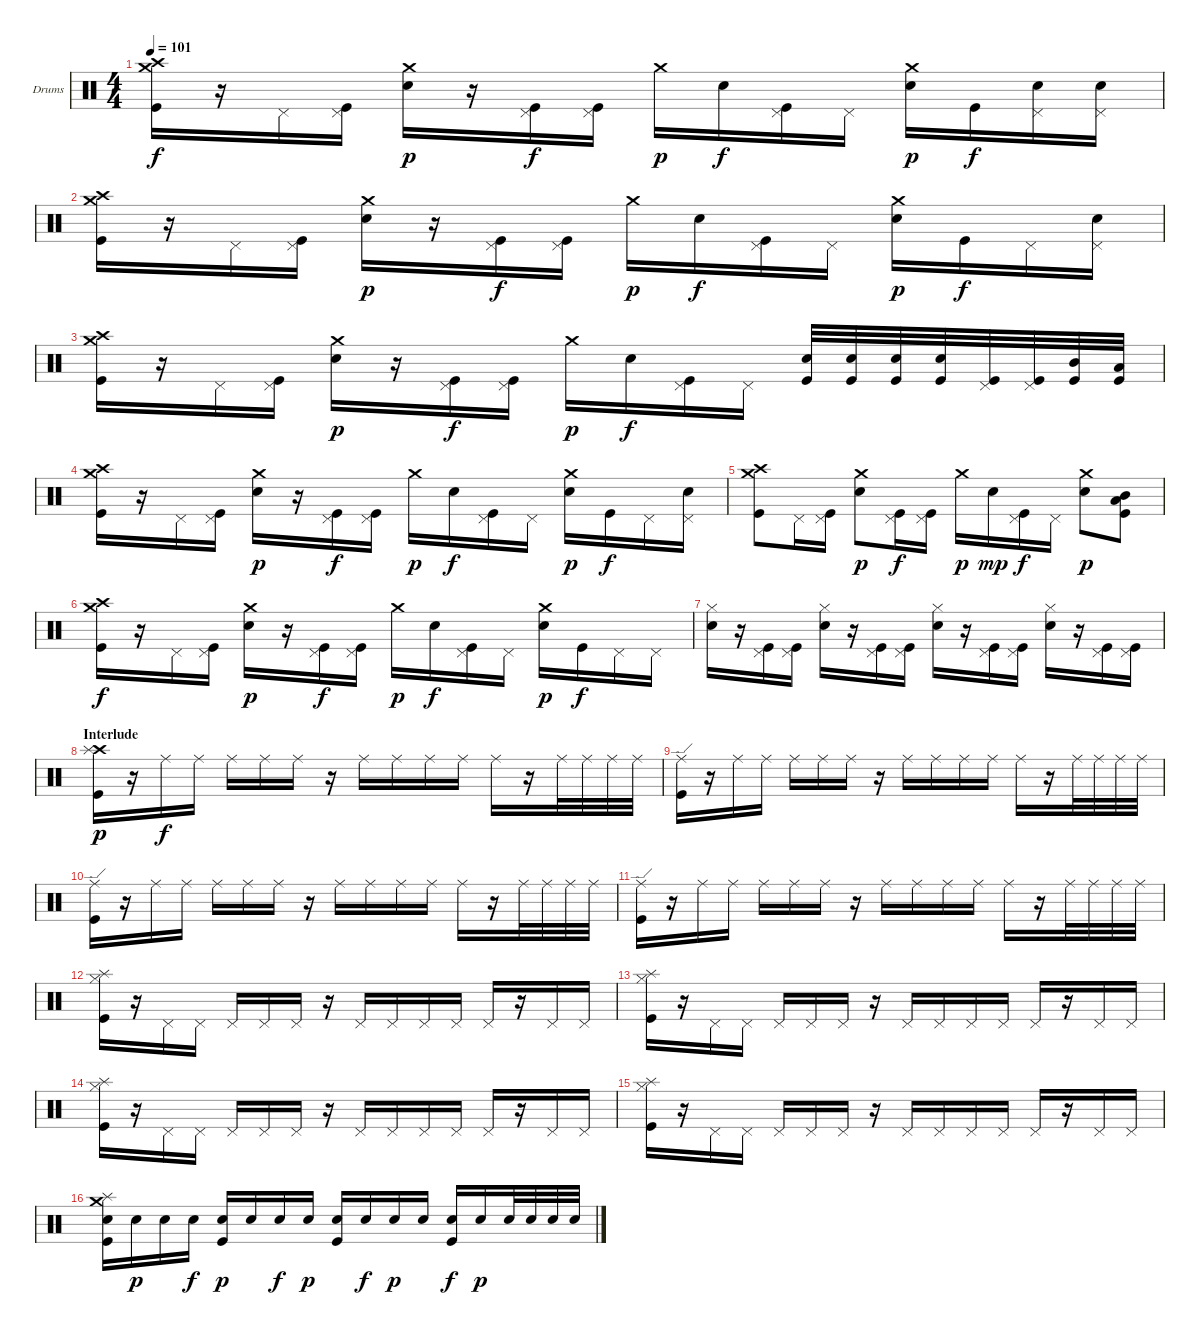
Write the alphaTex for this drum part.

\bracketExtendMode groupsimilarinstruments
\firstSystemTrackNameOrientation horizontal
\otherSystemsTrackNameOrientation horizontal
\track ("Drumkit" "Drums") {instrument percussion}
\staff {score}
\articulation defaults
\ts (4 4)
\tempo 101
\clef neutral
\ks c
("Crash high (hit)" "Crash medium (hit)" "Kick (hit)").16{dy f} r.16 "Pedal Hi-Hat (hit)".16 ("Pedal Hi-Hat (hit)" "Kick (hit)").16 ("Crash medium (hit)" "Snare (hit) 2").16{dy p} r.16 ("Pedal Hi-Hat (hit)" "Kick (hit)").16{dy f} ("Pedal Hi-Hat (hit)" "Kick (hit)").16 "Crash medium (hit)".16{dy p} "Snare (hit) 2".16{dy f} ("Pedal Hi-Hat (hit)" "Kick (hit)").16 "Pedal Hi-Hat (hit)".16 ("Crash medium (hit)" "Snare (hit) 2").16{dy p} "Kick (hit)".16{dy f} ("Pedal Hi-Hat (hit)" "Snare (hit) 2").16 ("Pedal Hi-Hat (hit)" "Snare (hit) 2").16 |
("Crash high (hit)" "Crash medium (hit)" "Kick (hit)").16 r.16 "Pedal Hi-Hat (hit)".16 ("Pedal Hi-Hat (hit)" "Kick (hit)").16 ("Crash medium (hit)" "Snare (hit) 2").16{dy p} r.16 ("Pedal Hi-Hat (hit)" "Kick (hit)").16{dy f} ("Pedal Hi-Hat (hit)" "Kick (hit)").16 "Crash medium (hit)".16{dy p} "Snare (hit) 2".16{dy f} ("Pedal Hi-Hat (hit)" "Kick (hit)").16 "Pedal Hi-Hat (hit)".16 ("Crash medium (hit)" "Snare (hit) 2").16{dy p} "Kick (hit)".16{dy f} "Pedal Hi-Hat (hit)".16 ("Pedal Hi-Hat (hit)" "Snare (hit) 2").16 |
("Crash high (hit)" "Crash medium (hit)" "Kick (hit)").16 r.16 "Pedal Hi-Hat (hit)".16 ("Pedal Hi-Hat (hit)" "Kick (hit)").16 ("Crash medium (hit)" "Snare (hit) 2").16{dy p} r.16 ("Pedal Hi-Hat (hit)" "Kick (hit)").16{dy f} ("Pedal Hi-Hat (hit)" "Kick (hit)").16 "Crash medium (hit)".16{dy p} "Snare (hit) 2".16{dy f} ("Pedal Hi-Hat (hit)" "Kick (hit)").16 "Pedal Hi-Hat (hit)".16 ("Snare (hit) 2" "Kick (hit)").32 ("Snare (hit) 2" "Kick (hit)").32 ("Snare (hit) 2" "Kick (hit)").32 ("Snare (hit) 2" "Kick (hit)").32 ("Pedal Hi-Hat (hit)" "Kick (hit)").32 ("Pedal Hi-Hat (hit)" "Kick (hit)").32 ("Mid Tom (hit)" "Kick (hit)").32 ("Low Tom (hit)" "Kick (hit)").32 |
("Crash high (hit)" "Crash medium (hit)" "Kick (hit)").16 r.16 "Pedal Hi-Hat (hit)".16 ("Pedal Hi-Hat (hit)" "Kick (hit)").16 ("Crash medium (hit)" "Snare (hit) 2").16{dy p} r.16 ("Pedal Hi-Hat (hit)" "Kick (hit)").16{dy f} ("Pedal Hi-Hat (hit)" "Kick (hit)").16 "Crash medium (hit)".16{dy p} "Snare (hit) 2".16{dy f} ("Pedal Hi-Hat (hit)" "Kick (hit)").16 "Pedal Hi-Hat (hit)".16 ("Crash medium (hit)" "Snare (hit) 2").16{dy p} "Kick (hit)".16{dy f} "Pedal Hi-Hat (hit)".16 ("Pedal Hi-Hat (hit)" "Snare (hit) 2").16 |
("Crash high (hit)" "Crash medium (hit)" "Kick (hit)").8 "Pedal Hi-Hat (hit)".16 ("Pedal Hi-Hat (hit)" "Kick (hit)").16 ("Crash medium (hit)" "Snare (hit) 2").8{dy p} ("Pedal Hi-Hat (hit)" "Kick (hit)").16{dy f} ("Pedal Hi-Hat (hit)" "Kick (hit)").16 "Crash medium (hit)".16{dy p} "Snare (hit) 2".16{dy mp} ("Pedal Hi-Hat (hit)" "Kick (hit)").16{dy f} "Pedal Hi-Hat (hit)".16 ("Crash medium (hit)" "Snare (hit) 2").8{dy p} ("Low Tom (hit)" "Mid Tom (hit)" "Kick (hit)").8 |
("Crash high (hit)" "Crash medium (hit)" "Kick (hit)").16{dy f} r.16 "Pedal Hi-Hat (hit)".16 ("Pedal Hi-Hat (hit)" "Kick (hit)").16 ("Crash medium (hit)" "Snare (hit) 2").16{dy p} r.16 ("Pedal Hi-Hat (hit)" "Kick (hit)").16{dy f} ("Pedal Hi-Hat (hit)" "Kick (hit)").16 "Crash medium (hit)".16{dy p} "Snare (hit) 2".16{dy f} ("Pedal Hi-Hat (hit)" "Kick (hit)").16 "Pedal Hi-Hat (hit)".16 ("Crash medium (hit)" "Snare (hit) 2").16{dy p} "Kick (hit)".16{dy f} "Pedal Hi-Hat (hit)".16 "Pedal Hi-Hat (hit)".16 |
("Hi-Hat (closed)" "Snare (hit) 2").16 r.16 ("Pedal Hi-Hat (hit)" "Kick (hit)").16 ("Pedal Hi-Hat (hit)" "Kick (hit)").16 ("Hi-Hat (closed)" "Snare (hit) 2").16 r.16 ("Pedal Hi-Hat (hit)" "Kick (hit)").16 ("Pedal Hi-Hat (hit)" "Kick (hit)").16 ("Hi-Hat (closed)" "Snare (hit) 2").16 r.16 ("Pedal Hi-Hat (hit)" "Kick (hit)").16 ("Pedal Hi-Hat (hit)" "Kick (hit)").16 ("Hi-Hat (closed)" "Snare (hit) 2").16 r.16 ("Pedal Hi-Hat (hit)" "Kick (hit)").16 ("Pedal Hi-Hat (hit)" "Kick (hit)").16 |
\section ("" "Interlude")
("Crash high (hit)" "Splash (hit)" "Kick (hit)").16{dy p} r.16 "Ride (middle)".16{dy f} "Ride (middle)".16 "Ride (middle)".16 "Ride (middle)".16 "Ride (middle)".16 r.16 "Ride (middle)".16 "Ride (middle)".16 "Ride (middle)".16 "Ride (middle)".16 "Ride (middle)".16 r.16 "Ride (middle)".32 "Ride (middle)".32 "Ride (middle)".32 "Ride (middle)".32 |
("Ride (edge)" "Kick (hit)").16 r.16 "Ride (middle)".16 "Ride (middle)".16 "Ride (middle)".16 "Ride (middle)".16 "Ride (middle)".16 r.16 "Ride (middle)".16 "Ride (middle)".16 "Ride (middle)".16 "Ride (middle)".16 "Ride (middle)".16 r.16 "Ride (middle)".32 "Ride (middle)".32 "Ride (middle)".32 "Ride (middle)".32 |
("Ride (edge)" "Kick (hit)").16 r.16 "Ride (middle)".16 "Ride (middle)".16 "Ride (middle)".16 "Ride (middle)".16 "Ride (middle)".16 r.16 "Ride (middle)".16 "Ride (middle)".16 "Ride (middle)".16 "Ride (middle)".16 "Ride (middle)".16 r.16 "Ride (middle)".32 "Ride (middle)".32 "Ride (middle)".32 "Ride (middle)".32 |
("Ride (edge)" "Kick (hit)").16 r.16 "Ride (middle)".16 "Ride (middle)".16 "Ride (middle)".16 "Ride (middle)".16 "Ride (middle)".16 r.16 "Ride (middle)".16 "Ride (middle)".16 "Ride (middle)".16 "Ride (middle)".16 "Ride (middle)".16 r.16 "Ride (middle)".32 "Ride (middle)".32 "Ride (middle)".32 "Ride (middle)".32 |
("Splash (hit)" "Hi-Hat (closed)" "Kick (hit)").16 r.16 "Pedal Hi-Hat (hit)".16 "Pedal Hi-Hat (hit)".16 "Pedal Hi-Hat (hit)".16 "Pedal Hi-Hat (hit)".16 "Pedal Hi-Hat (hit)".16 r.16 "Pedal Hi-Hat (hit)".16 "Pedal Hi-Hat (hit)".16 "Pedal Hi-Hat (hit)".16 "Pedal Hi-Hat (hit)".16 "Pedal Hi-Hat (hit)".16 r.16 "Pedal Hi-Hat (hit)".16 "Pedal Hi-Hat (hit)".16 |
("Splash (hit)" "Hi-Hat (closed)" "Kick (hit)").16 r.16 "Pedal Hi-Hat (hit)".16 "Pedal Hi-Hat (hit)".16 "Pedal Hi-Hat (hit)".16 "Pedal Hi-Hat (hit)".16 "Pedal Hi-Hat (hit)".16 r.16 "Pedal Hi-Hat (hit)".16 "Pedal Hi-Hat (hit)".16 "Pedal Hi-Hat (hit)".16 "Pedal Hi-Hat (hit)".16 "Pedal Hi-Hat (hit)".16 r.16 "Pedal Hi-Hat (hit)".16 "Pedal Hi-Hat (hit)".16 |
("Splash (hit)" "Hi-Hat (closed)" "Kick (hit)").16 r.16 "Pedal Hi-Hat (hit)".16 "Pedal Hi-Hat (hit)".16 "Pedal Hi-Hat (hit)".16 "Pedal Hi-Hat (hit)".16 "Pedal Hi-Hat (hit)".16 r.16 "Pedal Hi-Hat (hit)".16 "Pedal Hi-Hat (hit)".16 "Pedal Hi-Hat (hit)".16 "Pedal Hi-Hat (hit)".16 "Pedal Hi-Hat (hit)".16 r.16 "Pedal Hi-Hat (hit)".16 "Pedal Hi-Hat (hit)".16 |
("Splash (hit)" "Hi-Hat (closed)" "Kick (hit)").16 r.16 "Pedal Hi-Hat (hit)".16 "Pedal Hi-Hat (hit)".16 "Pedal Hi-Hat (hit)".16 "Pedal Hi-Hat (hit)".16 "Pedal Hi-Hat (hit)".16 r.16 "Pedal Hi-Hat (hit)".16 "Pedal Hi-Hat (hit)".16 "Pedal Hi-Hat (hit)".16 "Pedal Hi-Hat (hit)".16 "Pedal Hi-Hat (hit)".16 r.16 "Pedal Hi-Hat (hit)".16 "Pedal Hi-Hat (hit)".16 |
("Crash medium (hit)" "Splash (hit)" "Snare (hit) 2" "Kick (hit)").16 "Snare (hit) 2".16{dy p} "Snare (hit) 2".16 "Snare (hit) 2".16{dy f} ("Snare (hit) 2" "Kick (hit)").16{dy p} "Snare (hit) 2".16 "Snare (hit) 2".16{dy f} "Snare (hit) 2".16{dy p} ("Snare (hit) 2" "Kick (hit)").16 "Snare (hit) 2".16{dy f} "Snare (hit) 2".16{dy p} "Snare (hit) 2".16 ("Snare (hit) 2" "Kick (hit)").16{dy f} "Snare (hit) 2".16{dy p} "Snare (hit) 2".32 "Snare (hit) 2".32 "Snare (hit) 2".32 "Snare (hit) 2".32
